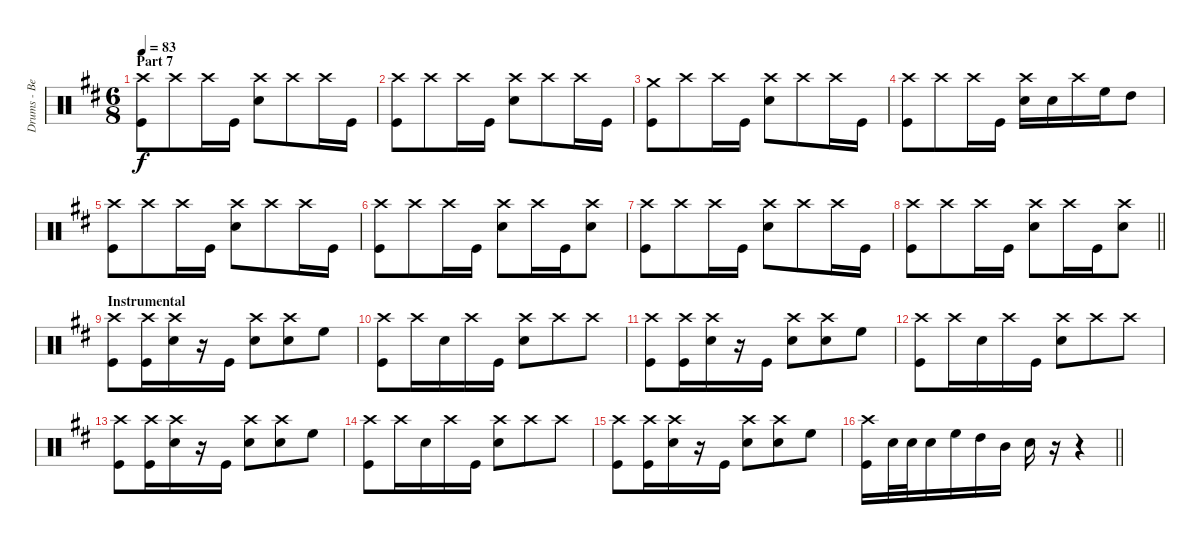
\track ("Drums - Ben Johnston" "Drums - Be") {instrument percussion}
\staff {score}
\articulation defaults
\ts (6 8)
\section ("" "Part 7")
\tempo 83
\clef neutral
\ks d
("Crash high (hit)" "Kick (hit)").8{dy f} "Crash high (hit)".8 "Crash high (hit)".16 "Kick (hit)".16 ("Crash high (hit)" "Snare (hit) 2").8 "Crash high (hit)".8 "Crash high (hit)".16 "Kick (hit)".16 |
("Crash high (hit)" "Kick (hit)").8 "Crash high (hit)".8 "Crash high (hit)".16 "Kick (hit)".16 ("Crash high (hit)" "Snare (hit) 2").8 "Crash high (hit)".8 "Crash high (hit)".16 "Kick (hit)".16 |
("Crash medium (hit)" "Kick (hit)").8 "Crash high (hit)".8 "Crash high (hit)".16 "Kick (hit)".16 ("Crash high (hit)" "Snare (hit) 2").8 "Crash high (hit)".8 "Crash high (hit)".16 "Kick (hit)".16 |
("Crash high (hit)" "Kick (hit)").8 "Crash high (hit)".8 "Crash high (hit)".16 "Kick (hit)".16 ("Crash high (hit)" "Snare (hit) 2").16 "Snare (hit) 2".16 "Crash high (hit)".16 "High Floor Tom (hit)".16 "High Tom (hit)".8 |
("Crash high (hit)" "Kick (hit)").8 "Crash high (hit)".8 "Crash high (hit)".16 "Kick (hit)".16 ("Crash high (hit)" "Snare (hit) 2").8 "Crash high (hit)".8 "Crash high (hit)".16 "Kick (hit)".16 |
("Crash high (hit)" "Kick (hit)").8 "Crash high (hit)".8 "Crash high (hit)".16 "Kick (hit)".16 ("Crash high (hit)" "Snare (hit) 2").8 "Crash high (hit)".16 "Kick (hit)".16 ("Crash high (hit)" "Snare (hit) 2").8 |
("Crash high (hit)" "Kick (hit)").8 "Crash high (hit)".8 "Crash high (hit)".16 "Kick (hit)".16 ("Crash high (hit)" "Snare (hit) 2").8 "Crash high (hit)".8 "Crash high (hit)".16 "Kick (hit)".16 |
\barLineRight lightlight
("Crash high (hit)" "Kick (hit)").8 "Crash high (hit)".8 "Crash high (hit)".16 "Kick (hit)".16 ("Crash high (hit)" "Snare (hit) 2").8 "Crash high (hit)".16 "Kick (hit)".16 ("Crash high (hit)" "Snare (hit) 2").8 |
\section ("" "Instrumental")
("Crash high (hit)" "Kick (hit)").8 ("Crash high (hit)" "Kick (hit)").16 ("Crash high (hit)" "Snare (hit) 2").16 r.16 "Kick (hit)".16 ("Crash high (hit)" "Snare (hit) 2").8 ("Crash high (hit)" "Snare (hit) 2").8 "High Floor Tom (hit)".8 |
("Crash high (hit)" "Kick (hit)").8 "Crash high (hit)".16 "Snare (hit) 2".16 "Crash high (hit)".16 "Kick (hit)".16 ("Crash high (hit)" "Snare (hit) 2").8 "Crash high (hit)".8 "Crash high (hit)".8 |
("Crash high (hit)" "Kick (hit)").8 ("Crash high (hit)" "Kick (hit)").16 ("Crash high (hit)" "Snare (hit) 2").16 r.16 "Kick (hit)".16 ("Crash high (hit)" "Snare (hit) 2").8 ("Crash high (hit)" "Snare (hit) 2").8 "High Floor Tom (hit)".8 |
("Crash high (hit)" "Kick (hit)").8 "Crash high (hit)".16 "Snare (hit) 2".16 "Crash high (hit)".16 "Kick (hit)".16 ("Crash high (hit)" "Snare (hit) 2").8 "Crash high (hit)".8 "Crash high (hit)".8 |
("Crash high (hit)" "Kick (hit)").8 ("Crash high (hit)" "Kick (hit)").16 ("Crash high (hit)" "Snare (hit) 2").16 r.16 "Kick (hit)".16 ("Crash high (hit)" "Snare (hit) 2").8 ("Crash high (hit)" "Snare (hit) 2").8 "High Floor Tom (hit)".8 |
("Crash high (hit)" "Kick (hit)").8 "Crash high (hit)".16 "Snare (hit) 2".16 "Crash high (hit)".16 "Kick (hit)".16 ("Crash high (hit)" "Snare (hit) 2").8 "Crash high (hit)".8 "Crash high (hit)".8 |
("Crash high (hit)" "Kick (hit)").8 ("Crash high (hit)" "Kick (hit)").16 ("Crash high (hit)" "Snare (hit) 2").16 r.16 "Kick (hit)".16 ("Crash high (hit)" "Snare (hit) 2").8 ("Crash high (hit)" "Snare (hit) 2").8 "High Floor Tom (hit)".8 |
\barLineRight lightlight
("Crash high (hit)" "Kick (hit)").16 "Snare (hit) 2".32 "Snare (hit) 2".32 "Snare (hit) 2".16 "High Floor Tom (hit)".16 "High Tom (hit)".16 "Mid Tom (hit)".16 "Snare (hit) 2".16 r.16 r.4
